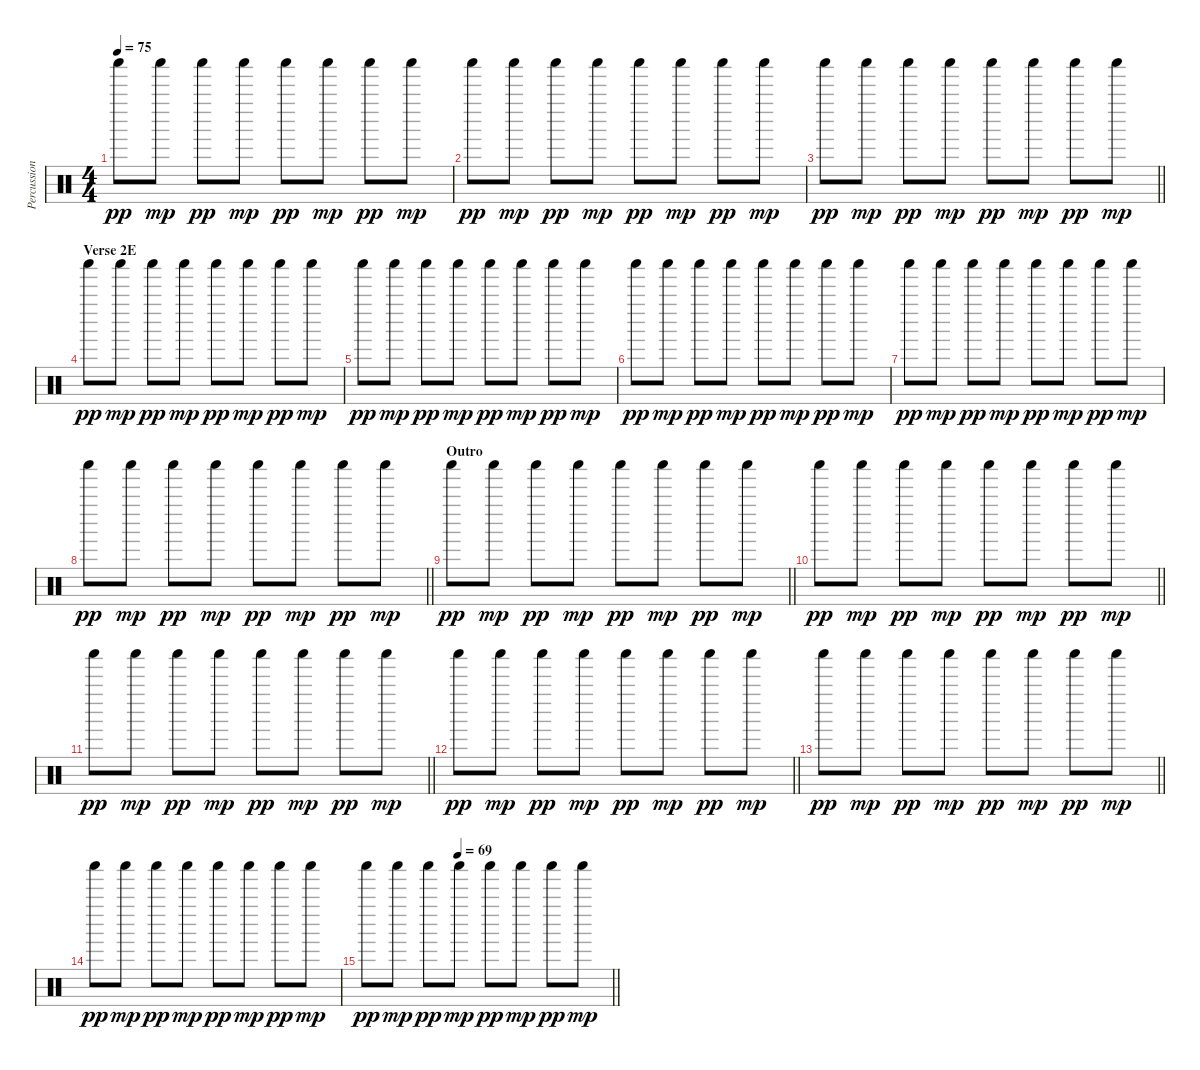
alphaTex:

\track ("Percussions" "Percussion") {instrument percussion}
\staff {score}
\articulation defaults
\ts (4 4)
\tempo 75
\clef neutral
\ks c "Shaker (hit)".8{dy pp} "Shaker (hit)".8{dy mp} "Shaker (hit)".8{dy pp} "Shaker (hit)".8{dy mp} "Shaker (hit)".8{dy pp} "Shaker (hit)".8{dy mp} "Shaker (hit)".8{dy pp} "Shaker (hit)".8{dy mp}
|
"Shaker (hit)".8{dy pp} "Shaker (hit)".8{dy mp} "Shaker (hit)".8{dy pp} "Shaker (hit)".8{dy mp} "Shaker (hit)".8{dy pp} "Shaker (hit)".8{dy mp} "Shaker (hit)".8{dy pp} "Shaker (hit)".8{dy mp} |
\barLineRight lightlight "Shaker (hit)".8{dy pp} "Shaker (hit)".8{dy mp} "Shaker (hit)".8{dy pp} "Shaker (hit)".8{dy mp} "Shaker (hit)".8{dy pp} "Shaker (hit)".8{dy mp} "Shaker (hit)".8{dy pp} "Shaker (hit)".8{dy mp}
|
\section ("" "Verse 2E")
"Shaker (hit)".8{dy pp} "Shaker (hit)".8{dy mp} "Shaker (hit)".8{dy pp} "Shaker (hit)".8{dy mp} "Shaker (hit)".8{dy pp} "Shaker (hit)".8{dy mp} "Shaker (hit)".8{dy pp} "Shaker (hit)".8{dy mp} |
"Shaker (hit)".8{dy pp} "Shaker (hit)".8{dy mp} "Shaker (hit)".8{dy pp} "Shaker (hit)".8{dy mp} "Shaker (hit)".8{dy pp} "Shaker (hit)".8{dy mp} "Shaker (hit)".8{dy pp} "Shaker (hit)".8{dy mp} |
"Shaker (hit)".8{dy pp} "Shaker (hit)".8{dy mp} "Shaker (hit)".8{dy pp} "Shaker (hit)".8{dy mp} "Shaker (hit)".8{dy pp} "Shaker (hit)".8{dy mp} "Shaker (hit)".8{dy pp} "Shaker (hit)".8{dy mp} |
"Shaker (hit)".8{dy pp} "Shaker (hit)".8{dy mp} "Shaker (hit)".8{dy pp} "Shaker (hit)".8{dy mp} "Shaker (hit)".8{dy pp} "Shaker (hit)".8{dy mp} "Shaker (hit)".8{dy pp} "Shaker (hit)".8{dy mp} |
\barLineRight lightlight "Shaker (hit)".8{dy pp} "Shaker (hit)".8{dy mp} "Shaker (hit)".8{dy pp} "Shaker (hit)".8{dy mp} "Shaker (hit)".8{dy pp} "Shaker (hit)".8{dy mp} "Shaker (hit)".8{dy pp} "Shaker (hit)".8{dy mp}
|
\section ("" "Outro")
\barLineRight lightlight "Shaker (hit)".8{dy pp} "Shaker (hit)".8{dy mp} "Shaker (hit)".8{dy pp} "Shaker (hit)".8{dy mp} "Shaker (hit)".8{dy pp} "Shaker (hit)".8{dy mp} "Shaker (hit)".8{dy pp} "Shaker (hit)".8{dy mp}
|
\barLineRight lightlight "Shaker (hit)".8{dy pp} "Shaker (hit)".8{dy mp} "Shaker (hit)".8{dy pp} "Shaker (hit)".8{dy mp} "Shaker (hit)".8{dy pp} "Shaker (hit)".8{dy mp} "Shaker (hit)".8{dy pp} "Shaker (hit)".8{dy mp}
|
\barLineRight lightlight "Shaker (hit)".8{dy pp} "Shaker (hit)".8{dy mp} "Shaker (hit)".8{dy pp} "Shaker (hit)".8{dy mp} "Shaker (hit)".8{dy pp} "Shaker (hit)".8{dy mp} "Shaker (hit)".8{dy pp} "Shaker (hit)".8{dy mp}
|
\barLineRight lightlight "Shaker (hit)".8{dy pp} "Shaker (hit)".8{dy mp} "Shaker (hit)".8{dy pp} "Shaker (hit)".8{dy mp} "Shaker (hit)".8{dy pp} "Shaker (hit)".8{dy mp} "Shaker (hit)".8{dy pp} "Shaker (hit)".8{dy mp}
|
\barLineRight lightlight "Shaker (hit)".8{dy pp} "Shaker (hit)".8{dy mp} "Shaker (hit)".8{dy pp} "Shaker (hit)".8{dy mp} "Shaker (hit)".8{dy pp} "Shaker (hit)".8{dy mp} "Shaker (hit)".8{dy pp} "Shaker (hit)".8{dy mp}
|
"Shaker (hit)".8{dy pp} "Shaker (hit)".8{dy mp} "Shaker (hit)".8{dy pp} "Shaker (hit)".8{dy mp} "Shaker (hit)".8{dy pp} "Shaker (hit)".8{dy mp} "Shaker (hit)".8{dy pp} "Shaker (hit)".8{dy mp} |
\tempo (69 0.375)
\barLineRight lightlight "Shaker (hit)".8{dy pp} "Shaker (hit)".8{dy mp} "Shaker (hit)".8{dy pp} "Shaker (hit)".8{dy mp} "Shaker (hit)".8{dy pp} "Shaker (hit)".8{dy mp} "Shaker (hit)".8{dy pp} "Shaker (hit)".8{dy mp}
